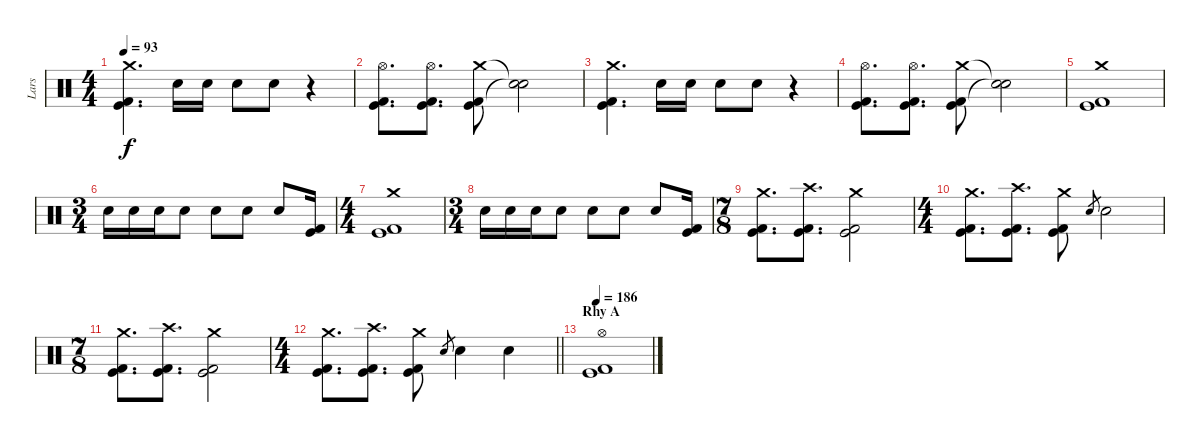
\track ("Lars" "Lars") {instrument percussion}
\staff {score}
\articulation defaults
\ts (4 4)
\tempo 93
\clef neutral
\ks c
("Crash medium (hit)" "Kick (hit)" "Kick (hit) 2").4{d dy f} "Electric Snare (hit)".16 "Electric Snare (hit)".16 "Electric Snare (hit)".8 "Electric Snare (hit)".8 r.4 |
("Hi-Hat (open)" "Kick (hit)" "Kick (hit) 2").8{d} ("Hi-Hat (open)" "Kick (hit)" "Kick (hit) 2").8{d} ("Crash medium (hit)" "Kick (hit)" "Kick (hit) 2").8 ("Snare (hit)"{t} "Snare (hit)"{t}).2 |
("Crash medium (hit)" "Kick (hit)" "Kick (hit) 2").4{d} "Electric Snare (hit)".16 "Electric Snare (hit)".16 "Electric Snare (hit)".8 "Electric Snare (hit)".8 r.4 |
("Hi-Hat (open)" "Kick (hit)" "Kick (hit) 2").8{d} ("Hi-Hat (open)" "Kick (hit)" "Kick (hit) 2").8{d} ("Crash medium (hit)" "Kick (hit)" "Kick (hit) 2").8 ("Snare (hit)"{t} "Snare (hit)"{t}).2 |
("Crash medium (hit)" "Kick (hit)" "Kick (hit) 2").1 |
\ts (3 4)
"Electric Snare (hit)".16 "Electric Snare (hit)".16 "Electric Snare (hit)".16 "Electric Snare (hit)".8 "Electric Snare (hit)".8 "Electric Snare (hit)".8 "Electric Snare (hit)".8 ("Kick (hit)" "Kick (hit) 2").16 |
\ts (4 4)
("Crash medium (hit)" "Kick (hit)" "Kick (hit) 2").1 |
\ts (3 4)
"Electric Snare (hit)".16 "Electric Snare (hit)".16 "Electric Snare (hit)".16 "Electric Snare (hit)".8 "Electric Snare (hit)".8 "Electric Snare (hit)".8 "Electric Snare (hit)".8 ("Kick (hit)" "Kick (hit) 2").16 |
\ts (7 8)
("Crash medium (hit)" "Kick (hit)" "Kick (hit) 2").8{d} ("Crash high (hit)" "Kick (hit)" "Kick (hit) 2").8{d} ("Crash medium (hit)" "Kick (hit)" "Kick (hit) 2").2 |
\ts (4 4)
("Crash medium (hit)" "Kick (hit)" "Kick (hit) 2").8{d} ("Crash high (hit)" "Kick (hit)" "Kick (hit) 2").8{d} ("Crash medium (hit)" "Kick (hit)" "Kick (hit) 2").8 "Electric Snare (hit)".8{gr} "Electric Snare (hit)".2 |
\ts (7 8)
("Crash medium (hit)" "Kick (hit)" "Kick (hit) 2").8{d} ("Crash high (hit)" "Kick (hit)" "Kick (hit) 2").8{d} ("Crash medium (hit)" "Kick (hit)" "Kick (hit) 2").2 |
\ts (4 4)
\barLineRight lightlight
("Crash medium (hit)" "Kick (hit)" "Kick (hit) 2").8{d} ("Crash high (hit)" "Kick (hit)" "Kick (hit) 2").8{d} ("Crash medium (hit)" "Kick (hit)" "Kick (hit) 2").8 "Electric Snare (hit)".8{gr} "Electric Snare (hit)".4 "Electric Snare (hit)".4 |
\section ("" "Rhy A")
\tempo 186
("Hi-Hat (open)" "Kick (hit)" "Kick (hit) 2").1
